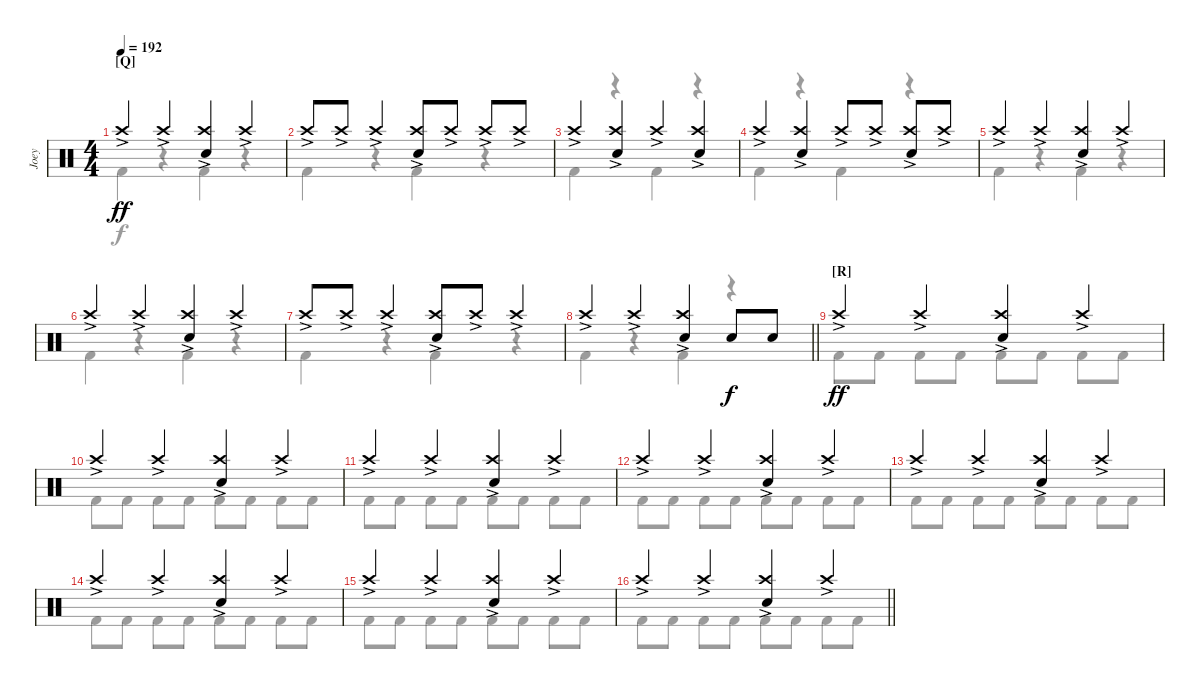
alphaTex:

\track ("Joey" "Joey") {instrument percussion}
\staff {score}
\articulation defaults
\voice
\ts (4 4)
\section ("" "[Q]")
\tempo 192
\clef neutral
\ks c "Crash high (hit)"{ac}.4{dy ff} "Crash high (hit)"{ac}.4
("Crash high (hit)"{ac} "Snare (hit) 2").4 "Crash high (hit)"{ac}.4 |
"Crash high (hit)"{ac}.8 "Crash high (hit)"{ac}.8 "Crash high (hit)"{ac}.4 ("Crash high (hit)"{ac} "Snare (hit) 2").8 "Crash high (hit)"{ac}.8 "Crash high (hit)"{ac}.8 "Crash high (hit)"{ac}.8 |
"Crash high (hit)"{ac}.4 ("Crash high (hit)"{ac} "Snare (hit) 2").4 "Crash high (hit)"{ac}.4 ("Crash high (hit)"{ac} "Snare (hit) 2").4 |
"Crash high (hit)"{ac}.4 ("Crash high (hit)"{ac} "Snare (hit) 2").4 "Crash high (hit)"{ac}.8 "Crash high (hit)"{ac}.8 ("Crash high (hit)"{ac} "Snare (hit) 2").8 "Crash high (hit)"{ac}.8 |
"Crash high (hit)"{ac}.4 "Crash high (hit)"{ac}.4 ("Crash high (hit)"{ac} "Snare (hit) 2").4 "Crash high (hit)"{ac}.4 |
"Crash high (hit)"{ac}.4 "Crash high (hit)"{ac}.4 ("Crash high (hit)"{ac} "Snare (hit) 2").4 "Crash high (hit)"{ac}.4 |
"Crash high (hit)"{ac}.8 "Crash high (hit)"{ac}.8 "Crash high (hit)"{ac}.4 ("Crash high (hit)"{ac} "Snare (hit) 2").8 "Crash high (hit)"{ac}.8 "Crash high (hit)"{ac}.4 |
\barLineRight lightlight "Crash high (hit)"{ac}.4 "Crash high (hit)"{ac}.4
("Crash high (hit)"{ac} "Snare (hit) 2").4 "Snare (hit) 2".8{dy f} "Snare (hit) 2".8 |
\section ("" "[R]")
"Crash high (hit)"{ac}.4{dy ff} "Crash high (hit)"{ac}.4 ("Crash high (hit)"{ac} "Snare (hit) 2").4 "Crash high (hit)"{ac}.4 |
"Crash high (hit)"{ac}.4 "Crash high (hit)"{ac}.4 ("Crash high (hit)"{ac} "Snare (hit) 2").4 "Crash high (hit)"{ac}.4 |
"Crash high (hit)"{ac}.4 "Crash high (hit)"{ac}.4 ("Crash high (hit)"{ac} "Snare (hit) 2").4 "Crash high (hit)"{ac}.4 |
"Crash high (hit)"{ac}.4 "Crash high (hit)"{ac}.4 ("Crash high (hit)"{ac} "Snare (hit) 2").4 "Crash high (hit)"{ac}.4 |
"Crash high (hit)"{ac}.4 "Crash high (hit)"{ac}.4 ("Crash high (hit)"{ac} "Snare (hit) 2").4 "Crash high (hit)"{ac}.4 |
"Crash high (hit)"{ac}.4 "Crash high (hit)"{ac}.4 ("Crash high (hit)"{ac} "Snare (hit) 2").4 "Crash high (hit)"{ac}.4 |
"Crash high (hit)"{ac}.4 "Crash high (hit)"{ac}.4 ("Crash high (hit)"{ac} "Snare (hit) 2").4 "Crash high (hit)"{ac}.4 |
\barLineRight lightlight "Crash high (hit)"{ac}.4 "Crash high (hit)"{ac}.4
("Crash high (hit)"{ac} "Snare (hit) 2").4 "Crash high (hit)"{ac}.4
\voice
\clef neutral
\ottava regular
\simile none
\ks c "Kick (hit) 2".4{dy f}
r.4 "Kick (hit) 2".4 r.4 |
"Kick (hit) 2".4 r.4 "Kick (hit) 2".4 r.4 |
"Kick (hit) 2".4 r.4 "Kick (hit) 2".4 r.4 |
"Kick (hit) 2".4 r.4 "Kick (hit) 2".4 r.4 |
"Kick (hit) 2".4 r.4 "Kick (hit) 2".4 r.4 |
"Kick (hit) 2".4 r.4 "Kick (hit) 2".4 r.4 |
"Kick (hit) 2".4 r.4 "Kick (hit) 2".4 r.4 |
\barLineRight lightlight "Kick (hit) 2".4
r.4 "Kick (hit) 2".4 r.4 |
"Kick (hit) 2".8 "Kick (hit) 2".8 "Kick (hit) 2".8 "Kick (hit) 2".8 "Kick (hit) 2".8 "Kick (hit) 2".8 "Kick (hit) 2".8 "Kick (hit) 2".8 |
"Kick (hit) 2".8 "Kick (hit) 2".8 "Kick (hit) 2".8 "Kick (hit) 2".8 "Kick (hit) 2".8 "Kick (hit) 2".8 "Kick (hit) 2".8 "Kick (hit) 2".8 |
"Kick (hit) 2".8 "Kick (hit) 2".8 "Kick (hit) 2".8 "Kick (hit) 2".8 "Kick (hit) 2".8 "Kick (hit) 2".8 "Kick (hit) 2".8 "Kick (hit) 2".8 |
"Kick (hit) 2".8 "Kick (hit) 2".8 "Kick (hit) 2".8 "Kick (hit) 2".8 "Kick (hit) 2".8 "Kick (hit) 2".8 "Kick (hit) 2".8 "Kick (hit) 2".8 |
"Kick (hit) 2".8 "Kick (hit) 2".8 "Kick (hit) 2".8 "Kick (hit) 2".8 "Kick (hit) 2".8 "Kick (hit) 2".8 "Kick (hit) 2".8 "Kick (hit) 2".8 |
"Kick (hit) 2".8 "Kick (hit) 2".8 "Kick (hit) 2".8 "Kick (hit) 2".8 "Kick (hit) 2".8 "Kick (hit) 2".8 "Kick (hit) 2".8 "Kick (hit) 2".8 |
"Kick (hit) 2".8 "Kick (hit) 2".8 "Kick (hit) 2".8 "Kick (hit) 2".8 "Kick (hit) 2".8 "Kick (hit) 2".8 "Kick (hit) 2".8 "Kick (hit) 2".8 |
\barLineRight lightlight "Kick (hit) 2".8 "Kick (hit) 2".8 "Kick (hit) 2".8 "Kick (hit) 2".8 "Kick (hit) 2".8 "Kick (hit) 2".8 "Kick (hit) 2".8 "Kick (hit) 2".8
